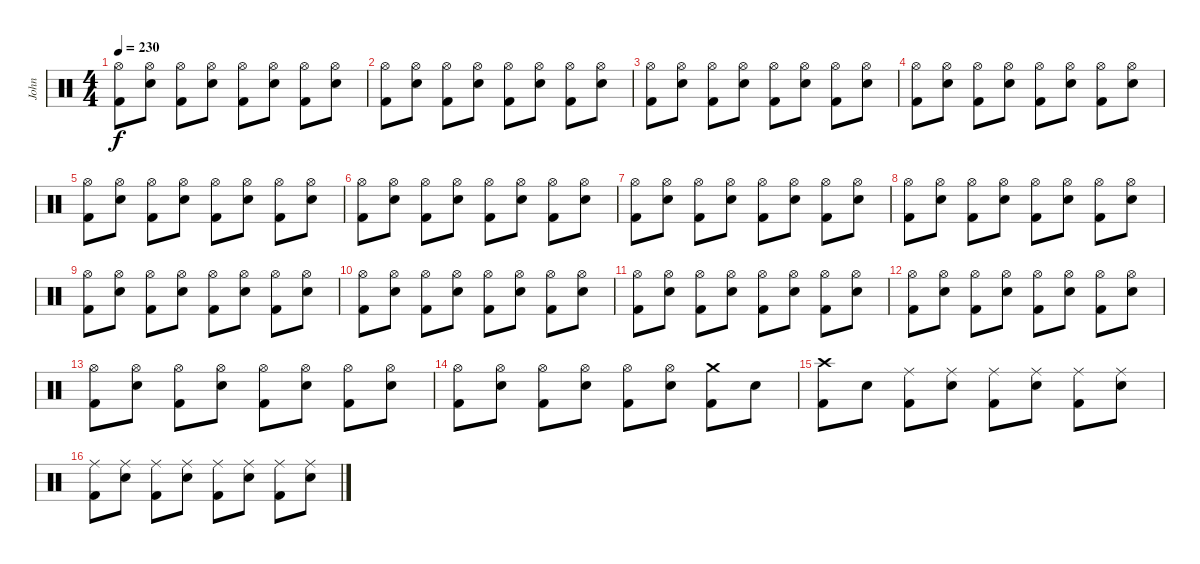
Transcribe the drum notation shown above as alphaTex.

\track ("John" "John") {instrument percussion}
\staff {score}
\articulation defaults
\ts (4 4)
\tempo 230
\clef neutral
\ks c
("Hi-Hat (open)" "Kick (hit) 2").8{dy f} ("Hi-Hat (open)" "Electric Snare (hit)").8 ("Hi-Hat (open)" "Kick (hit) 2").8 ("Hi-Hat (open)" "Electric Snare (hit)").8 ("Hi-Hat (open)" "Kick (hit) 2").8 ("Hi-Hat (open)" "Electric Snare (hit)").8 ("Hi-Hat (open)" "Kick (hit) 2").8 ("Hi-Hat (open)" "Electric Snare (hit)").8 |
("Hi-Hat (open)" "Kick (hit) 2").8 ("Hi-Hat (open)" "Electric Snare (hit)").8 ("Hi-Hat (open)" "Kick (hit) 2").8 ("Hi-Hat (open)" "Electric Snare (hit)").8 ("Hi-Hat (open)" "Kick (hit) 2").8 ("Hi-Hat (open)" "Electric Snare (hit)").8 ("Hi-Hat (open)" "Kick (hit) 2").8 ("Hi-Hat (open)" "Electric Snare (hit)").8 |
("Hi-Hat (open)" "Kick (hit) 2").8 ("Hi-Hat (open)" "Electric Snare (hit)").8 ("Hi-Hat (open)" "Kick (hit) 2").8 ("Hi-Hat (open)" "Electric Snare (hit)").8 ("Hi-Hat (open)" "Kick (hit) 2").8 ("Hi-Hat (open)" "Electric Snare (hit)").8 ("Hi-Hat (open)" "Kick (hit) 2").8 ("Hi-Hat (open)" "Electric Snare (hit)").8 |
("Hi-Hat (open)" "Kick (hit) 2").8 ("Hi-Hat (open)" "Electric Snare (hit)").8 ("Hi-Hat (open)" "Kick (hit) 2").8 ("Hi-Hat (open)" "Electric Snare (hit)").8 ("Hi-Hat (open)" "Kick (hit) 2").8 ("Hi-Hat (open)" "Electric Snare (hit)").8 ("Hi-Hat (open)" "Kick (hit) 2").8 ("Hi-Hat (open)" "Electric Snare (hit)").8 |
("Hi-Hat (open)" "Kick (hit) 2").8 ("Hi-Hat (open)" "Electric Snare (hit)").8 ("Hi-Hat (open)" "Kick (hit) 2").8 ("Hi-Hat (open)" "Electric Snare (hit)").8 ("Hi-Hat (open)" "Kick (hit) 2").8 ("Hi-Hat (open)" "Electric Snare (hit)").8 ("Hi-Hat (open)" "Kick (hit) 2").8 ("Hi-Hat (open)" "Electric Snare (hit)").8 |
("Hi-Hat (open)" "Kick (hit) 2").8 ("Hi-Hat (open)" "Electric Snare (hit)").8 ("Hi-Hat (open)" "Kick (hit) 2").8 ("Hi-Hat (open)" "Electric Snare (hit)").8 ("Hi-Hat (open)" "Kick (hit) 2").8 ("Hi-Hat (open)" "Electric Snare (hit)").8 ("Hi-Hat (open)" "Kick (hit) 2").8 ("Hi-Hat (open)" "Electric Snare (hit)").8 |
("Hi-Hat (open)" "Kick (hit) 2").8 ("Hi-Hat (open)" "Electric Snare (hit)").8 ("Hi-Hat (open)" "Kick (hit) 2").8 ("Hi-Hat (open)" "Electric Snare (hit)").8 ("Hi-Hat (open)" "Kick (hit) 2").8 ("Hi-Hat (open)" "Electric Snare (hit)").8 ("Hi-Hat (open)" "Kick (hit) 2").8 ("Hi-Hat (open)" "Electric Snare (hit)").8 |
("Hi-Hat (open)" "Kick (hit) 2").8 ("Hi-Hat (open)" "Electric Snare (hit)").8 ("Hi-Hat (open)" "Kick (hit) 2").8 ("Hi-Hat (open)" "Electric Snare (hit)").8 ("Hi-Hat (open)" "Kick (hit) 2").8 ("Hi-Hat (open)" "Electric Snare (hit)").8 ("Hi-Hat (open)" "Kick (hit) 2").8 ("Hi-Hat (open)" "Electric Snare (hit)").8 |
("Hi-Hat (open)" "Kick (hit) 2").8 ("Hi-Hat (open)" "Electric Snare (hit)").8 ("Hi-Hat (open)" "Kick (hit) 2").8 ("Hi-Hat (open)" "Electric Snare (hit)").8 ("Hi-Hat (open)" "Kick (hit) 2").8 ("Hi-Hat (open)" "Electric Snare (hit)").8 ("Hi-Hat (open)" "Kick (hit) 2").8 ("Hi-Hat (open)" "Electric Snare (hit)").8 |
("Hi-Hat (open)" "Kick (hit) 2").8 ("Hi-Hat (open)" "Electric Snare (hit)").8 ("Hi-Hat (open)" "Kick (hit) 2").8 ("Hi-Hat (open)" "Electric Snare (hit)").8 ("Hi-Hat (open)" "Kick (hit) 2").8 ("Hi-Hat (open)" "Electric Snare (hit)").8 ("Hi-Hat (open)" "Kick (hit) 2").8 ("Hi-Hat (open)" "Electric Snare (hit)").8 |
("Hi-Hat (open)" "Kick (hit) 2").8 ("Hi-Hat (open)" "Electric Snare (hit)").8 ("Hi-Hat (open)" "Kick (hit) 2").8 ("Hi-Hat (open)" "Electric Snare (hit)").8 ("Hi-Hat (open)" "Kick (hit) 2").8 ("Hi-Hat (open)" "Electric Snare (hit)").8 ("Hi-Hat (open)" "Kick (hit) 2").8 ("Hi-Hat (open)" "Electric Snare (hit)").8 |
("Hi-Hat (open)" "Kick (hit) 2").8 ("Hi-Hat (open)" "Electric Snare (hit)").8 ("Hi-Hat (open)" "Kick (hit) 2").8 ("Hi-Hat (open)" "Electric Snare (hit)").8 ("Hi-Hat (open)" "Kick (hit) 2").8 ("Hi-Hat (open)" "Electric Snare (hit)").8 ("Hi-Hat (open)" "Kick (hit) 2").8 ("Hi-Hat (open)" "Electric Snare (hit)").8 |
("Hi-Hat (open)" "Kick (hit) 2").8 ("Hi-Hat (open)" "Electric Snare (hit)").8 ("Hi-Hat (open)" "Kick (hit) 2").8 ("Hi-Hat (open)" "Electric Snare (hit)").8 ("Hi-Hat (open)" "Kick (hit) 2").8 ("Hi-Hat (open)" "Electric Snare (hit)").8 ("Hi-Hat (open)" "Kick (hit) 2").8 ("Hi-Hat (open)" "Electric Snare (hit)").8 |
("Hi-Hat (open)" "Kick (hit) 2").8 ("Hi-Hat (open)" "Electric Snare (hit)").8 ("Hi-Hat (open)" "Kick (hit) 2").8 ("Hi-Hat (open)" "Electric Snare (hit)").8 ("Hi-Hat (open)" "Kick (hit) 2").8 ("Hi-Hat (open)" "Electric Snare (hit)").8 ("Crash medium (hit)" "Kick (hit) 2").8 "Electric Snare (hit)".8 |
("Crash high (hit)" "Kick (hit) 2").8 "Electric Snare (hit)".8 ("Ride (middle)" "Kick (hit) 2").8 ("Ride (middle)" "Electric Snare (hit)").8 ("Ride (middle)" "Kick (hit) 2").8 ("Ride (middle)" "Electric Snare (hit)").8 ("Ride (middle)" "Kick (hit) 2").8 ("Ride (middle)" "Electric Snare (hit)").8 |
("Ride (middle)" "Kick (hit) 2").8 ("Ride (middle)" "Electric Snare (hit)").8 ("Ride (middle)" "Kick (hit) 2").8 ("Ride (middle)" "Electric Snare (hit)").8 ("Ride (middle)" "Kick (hit) 2").8 ("Ride (middle)" "Electric Snare (hit)").8 ("Ride (middle)" "Kick (hit) 2").8 ("Ride (middle)" "Electric Snare (hit)").8
